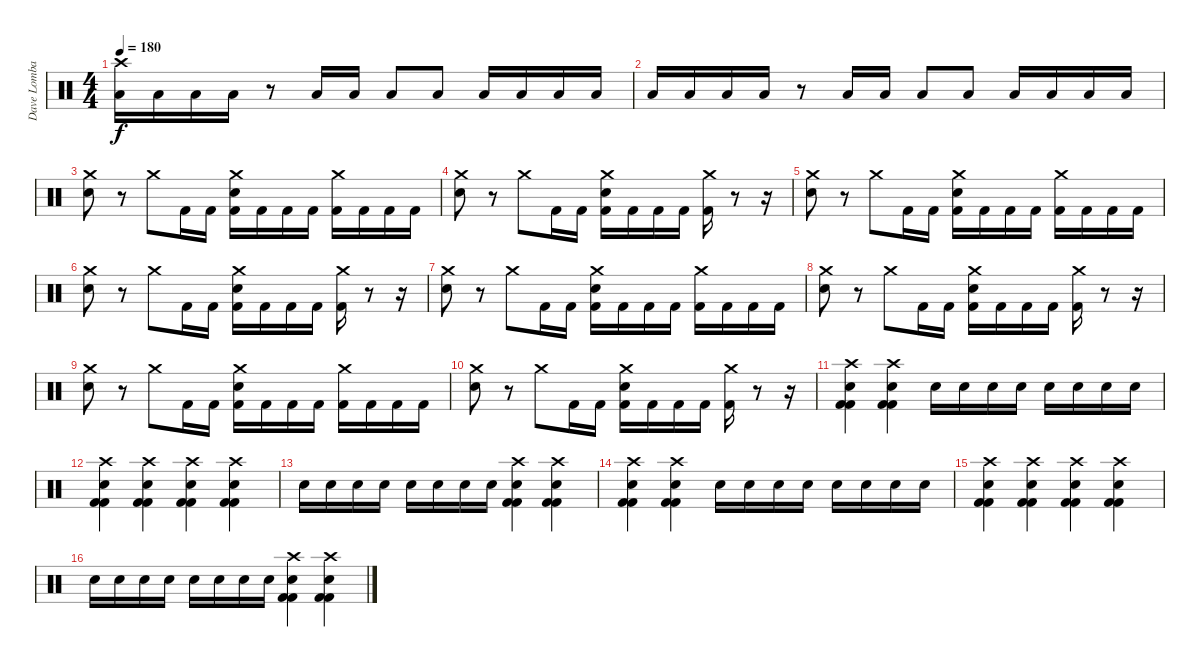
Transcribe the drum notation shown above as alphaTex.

\track ("Dave Lombardo" "Dave Lomba") {instrument percussion}
\staff {score}
\articulation defaults
\ts (4 4)
\tempo 180
\clef neutral
\ks c
("Crash high (hit)" "Low Floor Tom (hit)").16{dy f} "Low Floor Tom (hit)".16 "Low Floor Tom (hit)".16 "Low Floor Tom (hit)".16 r.8 "Low Floor Tom (hit)".16 "Low Floor Tom (hit)".16 "Low Floor Tom (hit)".8 "Low Floor Tom (hit)".8 "Low Floor Tom (hit)".16 "Low Floor Tom (hit)".16 "Low Floor Tom (hit)".16 "Low Floor Tom (hit)".16 |
"Low Floor Tom (hit)".16 "Low Floor Tom (hit)".16 "Low Floor Tom (hit)".16 "Low Floor Tom (hit)".16 r.8 "Low Floor Tom (hit)".16 "Low Floor Tom (hit)".16 "Low Floor Tom (hit)".8 "Low Floor Tom (hit)".8 "Low Floor Tom (hit)".16 "Low Floor Tom (hit)".16 "Low Floor Tom (hit)".16 "Low Floor Tom (hit)".16 |
("Crash medium (hit)" "Electric Snare (hit)").8 r.8 "Crash medium (hit)".8 "Kick (hit) 2".16 "Kick (hit) 2".16 ("Crash medium (hit)" "Electric Snare (hit)" "Kick (hit) 2").16 "Kick (hit) 2".16 "Kick (hit) 2".16 "Kick (hit) 2".16 ("Crash medium (hit)" "Kick (hit) 2").16 "Kick (hit) 2".16 "Kick (hit) 2".16 "Kick (hit) 2".16 |
("Crash medium (hit)" "Electric Snare (hit)").8 r.8 "Crash medium (hit)".8 "Kick (hit) 2".16 "Kick (hit) 2".16 ("Crash medium (hit)" "Electric Snare (hit)" "Kick (hit) 2").16 "Kick (hit) 2".16 "Kick (hit) 2".16 "Kick (hit) 2".16 ("Crash medium (hit)" "Kick (hit) 2").16 r.8 r.16 |
("Crash medium (hit)" "Electric Snare (hit)").8 r.8 "Crash medium (hit)".8 "Kick (hit) 2".16 "Kick (hit) 2".16 ("Crash medium (hit)" "Electric Snare (hit)" "Kick (hit) 2").16 "Kick (hit) 2".16 "Kick (hit) 2".16 "Kick (hit) 2".16 ("Crash medium (hit)" "Kick (hit) 2").16 "Kick (hit) 2".16 "Kick (hit) 2".16 "Kick (hit) 2".16 |
("Crash medium (hit)" "Electric Snare (hit)").8 r.8 "Crash medium (hit)".8 "Kick (hit) 2".16 "Kick (hit) 2".16 ("Crash medium (hit)" "Electric Snare (hit)" "Kick (hit) 2").16 "Kick (hit) 2".16 "Kick (hit) 2".16 "Kick (hit) 2".16 ("Crash medium (hit)" "Kick (hit) 2").16 r.8 r.16 |
("Crash medium (hit)" "Electric Snare (hit)").8 r.8 "Crash medium (hit)".8 "Kick (hit) 2".16 "Kick (hit) 2".16 ("Crash medium (hit)" "Electric Snare (hit)" "Kick (hit) 2").16 "Kick (hit) 2".16 "Kick (hit) 2".16 "Kick (hit) 2".16 ("Crash medium (hit)" "Kick (hit) 2").16 "Kick (hit) 2".16 "Kick (hit) 2".16 "Kick (hit) 2".16 |
("Crash medium (hit)" "Electric Snare (hit)").8 r.8 "Crash medium (hit)".8 "Kick (hit) 2".16 "Kick (hit) 2".16 ("Crash medium (hit)" "Electric Snare (hit)" "Kick (hit) 2").16 "Kick (hit) 2".16 "Kick (hit) 2".16 "Kick (hit) 2".16 ("Crash medium (hit)" "Kick (hit) 2").16 r.8 r.16 |
("Crash medium (hit)" "Electric Snare (hit)").8 r.8 "Crash medium (hit)".8 "Kick (hit) 2".16 "Kick (hit) 2".16 ("Crash medium (hit)" "Electric Snare (hit)" "Kick (hit) 2").16 "Kick (hit) 2".16 "Kick (hit) 2".16 "Kick (hit) 2".16 ("Crash medium (hit)" "Kick (hit) 2").16 "Kick (hit) 2".16 "Kick (hit) 2".16 "Kick (hit) 2".16 |
("Crash medium (hit)" "Electric Snare (hit)").8 r.8 "Crash medium (hit)".8 "Kick (hit) 2".16 "Kick (hit) 2".16 ("Crash medium (hit)" "Electric Snare (hit)" "Kick (hit) 2").16 "Kick (hit) 2".16 "Kick (hit) 2".16 "Kick (hit) 2".16 ("Crash medium (hit)" "Kick (hit) 2").16 r.8 r.16 |
("Crash high (hit)" "Electric Snare (hit)" "Kick (hit) 2" "Kick (hit) 2").4 ("Crash high (hit)" "Electric Snare (hit)" "Kick (hit) 2" "Kick (hit) 2").4 "Electric Snare (hit)".16 "Electric Snare (hit)".16 "Electric Snare (hit)".16 "Electric Snare (hit)".16 "Electric Snare (hit)".16 "Electric Snare (hit)".16 "Electric Snare (hit)".16 "Electric Snare (hit)".16 |
("Crash high (hit)" "Electric Snare (hit)" "Kick (hit) 2" "Kick (hit) 2").4 ("Crash high (hit)" "Electric Snare (hit)" "Kick (hit) 2" "Kick (hit) 2").4 ("Crash high (hit)" "Electric Snare (hit)" "Kick (hit) 2" "Kick (hit) 2").4 ("Crash high (hit)" "Electric Snare (hit)" "Kick (hit) 2" "Kick (hit) 2").4 |
"Electric Snare (hit)".16 "Electric Snare (hit)".16 "Electric Snare (hit)".16 "Electric Snare (hit)".16 "Electric Snare (hit)".16 "Electric Snare (hit)".16 "Electric Snare (hit)".16 "Electric Snare (hit)".16 ("Crash high (hit)" "Electric Snare (hit)" "Kick (hit) 2" "Kick (hit) 2").4 ("Crash high (hit)" "Electric Snare (hit)" "Kick (hit) 2" "Kick (hit) 2").4 |
("Crash high (hit)" "Electric Snare (hit)" "Kick (hit) 2" "Kick (hit) 2").4 ("Crash high (hit)" "Electric Snare (hit)" "Kick (hit) 2" "Kick (hit) 2").4 "Electric Snare (hit)".16 "Electric Snare (hit)".16 "Electric Snare (hit)".16 "Electric Snare (hit)".16 "Electric Snare (hit)".16 "Electric Snare (hit)".16 "Electric Snare (hit)".16 "Electric Snare (hit)".16 |
("Crash high (hit)" "Electric Snare (hit)" "Kick (hit) 2" "Kick (hit) 2").4 ("Crash high (hit)" "Electric Snare (hit)" "Kick (hit) 2" "Kick (hit) 2").4 ("Crash high (hit)" "Electric Snare (hit)" "Kick (hit) 2" "Kick (hit) 2").4 ("Crash high (hit)" "Electric Snare (hit)" "Kick (hit) 2" "Kick (hit) 2").4 |
"Electric Snare (hit)".16 "Electric Snare (hit)".16 "Electric Snare (hit)".16 "Electric Snare (hit)".16 "Electric Snare (hit)".16 "Electric Snare (hit)".16 "Electric Snare (hit)".16 "Electric Snare (hit)".16 ("Crash high (hit)" "Electric Snare (hit)" "Kick (hit) 2" "Kick (hit) 2").4 ("Crash high (hit)" "Electric Snare (hit)" "Kick (hit) 2" "Kick (hit) 2").4
